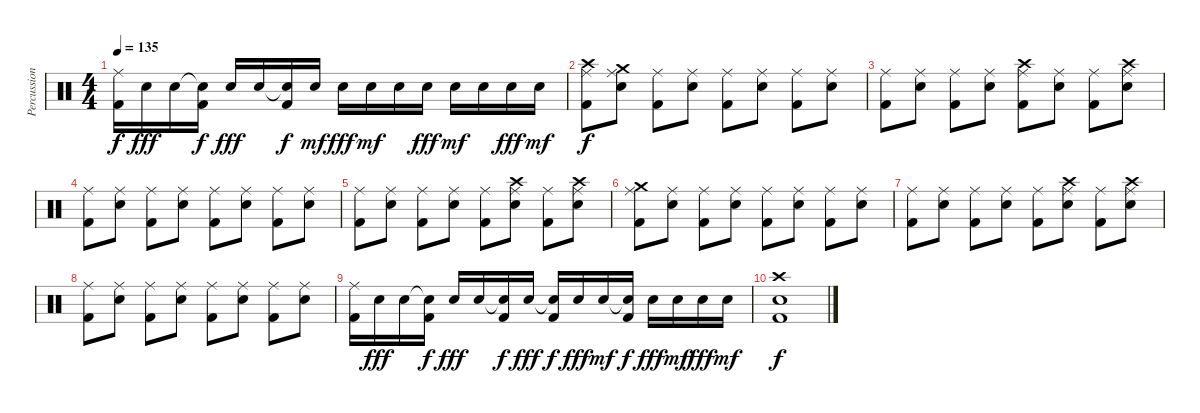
\track ("Percussion" "Percussion") {instrument percussion}
\staff {score}
\articulation defaults
\ts (4 4)
\tempo 135
\clef neutral
\ks c
("Ride (middle)" "Kick (hit) 2").16{dy f} "Electric Snare (hit)".16{dy fff} "Electric Snare (hit)".16 ("Electric Snare (hit)"{t} "Kick (hit) 2").16{dy f} "Electric Snare (hit)".16{dy fff} "Electric Snare (hit)".16 ("Electric Snare (hit)"{t} "Kick (hit) 2").16{dy f} "Electric Snare (hit)".16{dy mf} "Electric Snare (hit)".16{dy fff} "Electric Snare (hit)".16{dy mf} "Electric Snare (hit)".16 "Electric Snare (hit)".16{dy fff} "Electric Snare (hit)".16{dy mf} "Electric Snare (hit)".16 "Electric Snare (hit)".16{dy fff} "Electric Snare (hit)".16{dy mf} |
("Crash high (hit)" "Ride (middle)" "Kick (hit) 2").8{dy f} ("Crash medium (hit)" "Ride (middle)" "Electric Snare (hit)").8 ("Ride (middle)" "Kick (hit) 2").8 ("Ride (middle)" "Electric Snare (hit)").8 ("Ride (middle)" "Kick (hit) 2").8 ("Ride (middle)" "Electric Snare (hit)").8 ("Ride (middle)" "Kick (hit) 2").8 ("Ride (middle)" "Electric Snare (hit)").8 |
("Ride (middle)" "Kick (hit) 2").8 ("Ride (middle)" "Electric Snare (hit)").8 ("Ride (middle)" "Kick (hit) 2").8 ("Ride (middle)" "Electric Snare (hit)").8 ("Crash high (hit)" "Ride (middle)" "Kick (hit) 2").8 ("Ride (middle)" "Electric Snare (hit)").8 ("Ride (middle)" "Kick (hit) 2").8 ("Crash high (hit)" "Ride (middle)" "Electric Snare (hit)").8 |
("Ride (middle)" "Kick (hit) 2").8 ("Ride (middle)" "Electric Snare (hit)").8 ("Ride (middle)" "Kick (hit) 2").8 ("Ride (middle)" "Electric Snare (hit)").8 ("Ride (middle)" "Kick (hit) 2").8 ("Ride (middle)" "Electric Snare (hit)").8 ("Ride (middle)" "Kick (hit) 2").8 ("Ride (middle)" "Electric Snare (hit)").8 |
("Ride (middle)" "Kick (hit) 2").8 ("Ride (middle)" "Electric Snare (hit)").8 ("Ride (middle)" "Kick (hit) 2").8 ("Ride (middle)" "Electric Snare (hit)").8 ("Ride (middle)" "Kick (hit) 2").8 ("Crash high (hit)" "Ride (middle)" "Electric Snare (hit)").8 ("Ride (middle)" "Kick (hit) 2").8 ("Crash high (hit)" "Ride (middle)" "Electric Snare (hit)").8 |
("Crash medium (hit)" "Ride (middle)" "Kick (hit) 2").8 ("Ride (middle)" "Electric Snare (hit)").8 ("Ride (middle)" "Kick (hit) 2").8 ("Ride (middle)" "Electric Snare (hit)").8 ("Ride (middle)" "Kick (hit) 2").8 ("Ride (middle)" "Electric Snare (hit)").8 ("Ride (middle)" "Kick (hit) 2").8 ("Ride (middle)" "Electric Snare (hit)").8 |
("Ride (middle)" "Kick (hit) 2").8 ("Ride (middle)" "Electric Snare (hit)").8 ("Ride (middle)" "Kick (hit) 2").8 ("Ride (middle)" "Electric Snare (hit)").8 ("Ride (middle)" "Kick (hit) 2").8 ("Crash high (hit)" "Ride (middle)" "Electric Snare (hit)").8 ("Ride (middle)" "Kick (hit) 2").8 ("Crash high (hit)" "Ride (middle)" "Electric Snare (hit)").8 |
("Ride (middle)" "Kick (hit) 2").8 ("Ride (middle)" "Electric Snare (hit)").8 ("Ride (middle)" "Kick (hit) 2").8 ("Ride (middle)" "Electric Snare (hit)").8 ("Ride (middle)" "Kick (hit) 2").8 ("Ride (middle)" "Electric Snare (hit)").8 ("Ride (middle)" "Kick (hit) 2").8 ("Ride (middle)" "Electric Snare (hit)").8 |
("Ride (middle)" "Kick (hit) 2").16 "Electric Snare (hit)".16{dy fff} "Electric Snare (hit)".16 ("Electric Snare (hit)"{t} "Kick (hit) 2").16{dy f} "Electric Snare (hit)".16{dy fff} "Electric Snare (hit)".16 ("Electric Snare (hit)"{t} "Kick (hit) 2").16{dy f} "Electric Snare (hit)".16{dy fff} ("Electric Snare (hit)"{t} "Kick (hit) 2").16{dy f} "Electric Snare (hit)".16{dy fff} "Electric Snare (hit)".16{dy mf} ("Electric Snare (hit)"{t} "Kick (hit) 2").16{dy f} "Electric Snare (hit)".16{dy fff} "Electric Snare (hit)".16{dy mf} "Electric Snare (hit)".16{dy fff} "Electric Snare (hit)".16{dy mf} |
("Crash high (hit)" "Electric Snare (hit)" "Kick (hit) 2").1{dy f}
